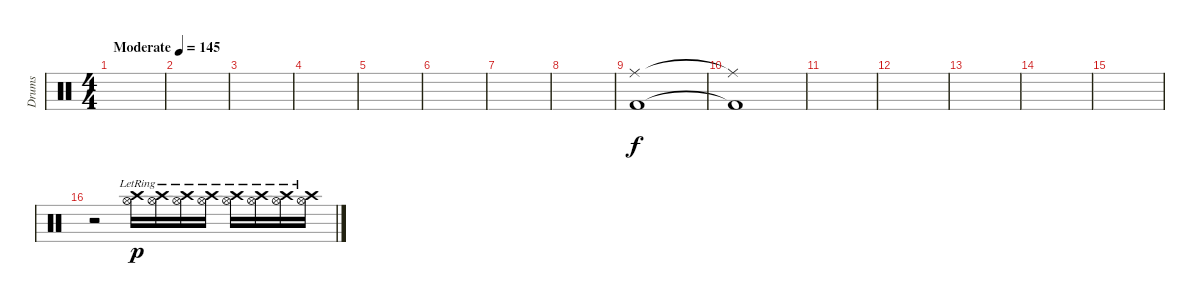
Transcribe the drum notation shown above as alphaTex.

\track ("Drums" "Drums") {instrument percussion}
\staff {score}
\articulation defaults
\ts (4 4)
\tempo (145 "Moderate")
\clef neutral
\ks c
|
|
|
|
|
|
|
|
("Ride (middle)" "Kick (hit) 2").1 |
("Ride (middle)"{t} "Kick (hit) 2"{t}).1{dy f} |
|
|
|
|
|
r.2 ("Hi-Hat (open)"{lr} "Crash high (hit)"{lr}).16{dy p} ("Hi-Hat (open)"{lr} "Crash high (hit)"{lr}).16 ("Hi-Hat (open)"{lr} "Crash high (hit)"{lr}).16 ("Hi-Hat (open)"{lr} "Crash high (hit)"{lr}).16 ("Hi-Hat (open)"{lr} "Crash high (hit)"{lr}).16 ("Hi-Hat (open)"{lr} "Crash high (hit)"{lr}).16 ("Hi-Hat (open)"{lr} "Crash high (hit)"{lr}).16 ("Hi-Hat (open)"{lr} "Crash high (hit)"{lr}).16
